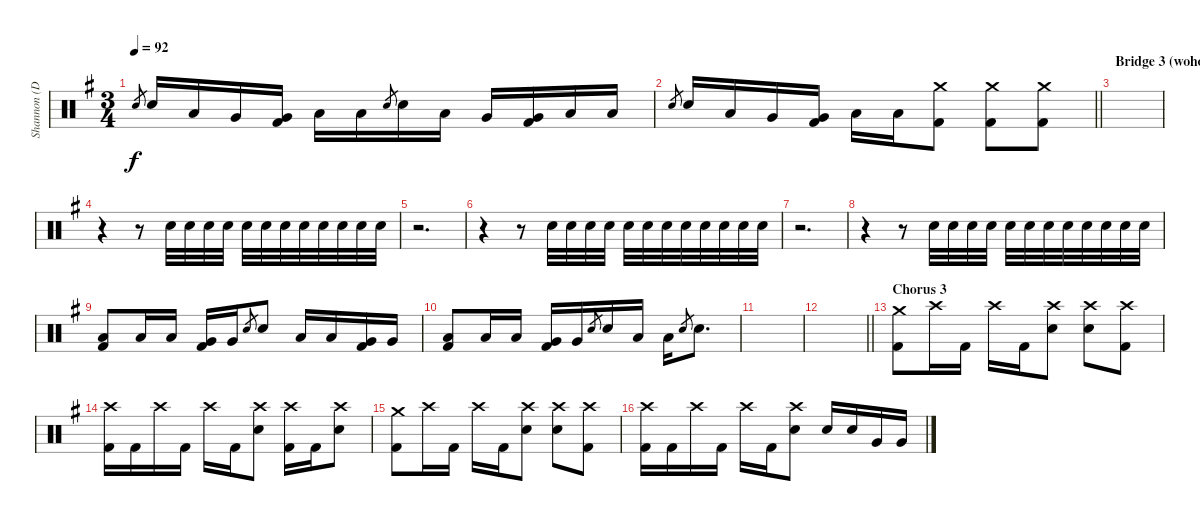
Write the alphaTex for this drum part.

\track ("Shannon (Drums)" "Shannon (D") {instrument percussion}
\staff {score}
\articulation defaults
\ts (3 4)
\tempo 92
\clef neutral
\ks g "Electric Snare (hit)".8{gr dy f} "Electric Snare (hit)".16 "Low Floor Tom (hit)".16 "Very Low Tom (hit)".16
("Very Low Tom (hit)" "Kick (hit) 2").16 "Low Floor Tom (hit)".16 "Low Floor Tom (hit)".16 "Electric Snare (hit)".8{gr} "Electric Snare (hit)".16 "Low Floor Tom (hit)".16 "Very Low Tom (hit)".16 ("Very Low Tom (hit)" "Kick (hit) 2").16 "Low Floor Tom (hit)".16 "Low Floor Tom (hit)".16 |
\barLineRight lightlight "Electric Snare (hit)".8{gr} "Electric Snare (hit)".16 "Low Floor Tom (hit)".16 "Very Low Tom (hit)".16
("Very Low Tom (hit)" "Kick (hit) 2").16 "Low Floor Tom (hit)".16 "Low Floor Tom (hit)".16 ("Crash medium (hit)" "Kick (hit) 2").8 ("Crash medium (hit)" "Kick (hit) 2").8 ("Crash medium (hit)" "Kick (hit) 2").8 |
\section ("" "Bridge 3 (woho ho ho)")
|
r.4 r.8 "Electric Snare (hit)".32 "Electric Snare (hit)".32 "Electric Snare (hit)".32 "Electric Snare (hit)".32 "Electric Snare (hit)".32 "Electric Snare (hit)".32 "Electric Snare (hit)".32 "Electric Snare (hit)".32 "Electric Snare (hit)".32 "Electric Snare (hit)".32 "Electric Snare (hit)".32 "Electric Snare (hit)".32 |
r.2{d} |
r.4 r.8 "Electric Snare (hit)".32 "Electric Snare (hit)".32 "Electric Snare (hit)".32 "Electric Snare (hit)".32 "Electric Snare (hit)".32 "Electric Snare (hit)".32 "Electric Snare (hit)".32 "Electric Snare (hit)".32 "Electric Snare (hit)".32 "Electric Snare (hit)".32 "Electric Snare (hit)".32 "Electric Snare (hit)".32 |
r.2{d} |
r.4 r.8 "Electric Snare (hit)".32 "Electric Snare (hit)".32 "Electric Snare (hit)".32 "Electric Snare (hit)".32 "Electric Snare (hit)".32 "Electric Snare (hit)".32 "Electric Snare (hit)".32 "Electric Snare (hit)".32 "Electric Snare (hit)".32 "Electric Snare (hit)".32 "Electric Snare (hit)".32 "Electric Snare (hit)".32 |
("Low Floor Tom (hit)" "Kick (hit) 2").8 "Low Tom (hit)".16 "Low Tom (hit)".16 ("Very Low Tom (hit)" "Kick (hit) 2").16 "Very Low Tom (hit)".16 "Electric Snare (hit)".8{gr} "Electric Snare (hit)".8 "Low Tom (hit)".16 "Low Tom (hit)".16 ("Very Low Tom (hit)" "Kick (hit) 2").16 "Very Low Tom (hit)".16 |
("Low Floor Tom (hit)" "Kick (hit) 2").8 "Low Tom (hit)".16 "Low Tom (hit)".16 ("Very Low Tom (hit)" "Kick (hit) 2").16 "Very Low Tom (hit)".16 "Electric Snare (hit)".8{gr} "Electric Snare (hit)".16 "Low Tom (hit)".16 "Low Tom (hit)".16 "Electric Snare (hit)".8{gr} "Electric Snare (hit)".8{d} |
|
\barLineRight lightlight
|
\section ("" "Chorus 3")
("Crash medium (hit)" "Kick (hit) 2").8 "Crash high (hit)".16 "Kick (hit) 2".16 "Crash high (hit)".16 "Kick (hit) 2".16 ("Crash high (hit)" "Electric Snare (hit)").8 ("Crash high (hit)" "Electric Snare (hit)").8 ("Crash high (hit)" "Kick (hit) 2").8 |
("Crash high (hit)" "Kick (hit) 2").16 "Kick (hit) 2".16 "Crash high (hit)".16 "Kick (hit) 2".16 "Crash high (hit)".16 "Kick (hit) 2".16 ("Crash high (hit)" "Electric Snare (hit)").8 ("Crash high (hit)" "Kick (hit) 2").16 "Kick (hit) 2".16 ("Crash high (hit)" "Electric Snare (hit)").8 |
("Crash medium (hit)" "Kick (hit) 2").8 "Crash high (hit)".16 "Kick (hit) 2".16 "Crash high (hit)".16 "Kick (hit) 2".16 ("Crash high (hit)" "Electric Snare (hit)").8 ("Crash high (hit)" "Electric Snare (hit)").8 ("Crash high (hit)" "Kick (hit) 2").8 |
("Crash high (hit)" "Kick (hit) 2").16 "Kick (hit) 2".16 "Crash high (hit)".16 "Kick (hit) 2".16 "Crash high (hit)".16 "Kick (hit) 2".16 ("Crash high (hit)" "Electric Snare (hit)").8 "Electric Snare (hit)".16 "Electric Snare (hit)".16 "Very Low Tom (hit)".16 "Very Low Tom (hit)".16
